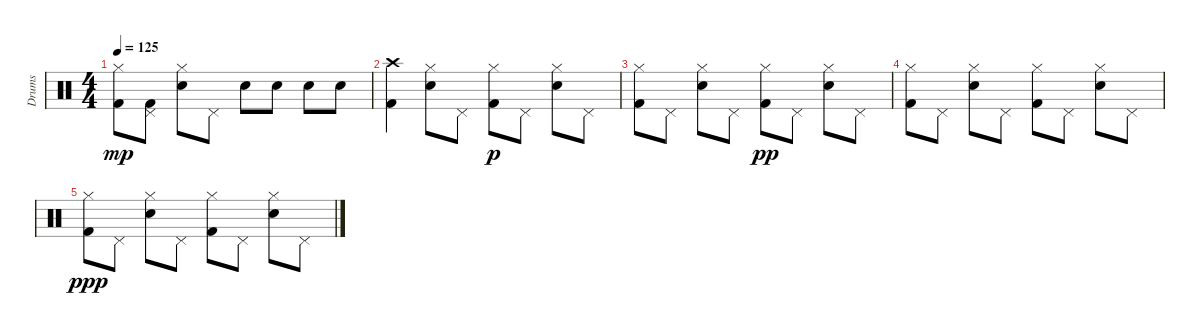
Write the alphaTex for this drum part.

\track ("Drums" "Drums") {instrument percussion}
\staff {score}
\articulation defaults
\ts (4 4)
\tempo 125
\clef neutral
\ks c
("Hi-Hat (closed)" "Kick (hit) 2").8{dy mp} ("Pedal Hi-Hat (hit)" "Kick (hit) 2").8 ("Hi-Hat (closed)" "Electric Snare (hit)").8 "Pedal Hi-Hat (hit)".8 "Electric Snare (hit)".8 "Electric Snare (hit)".8 "Electric Snare (hit)".8 "Electric Snare (hit)".8 |
("Crash high (hit)" "Kick (hit) 2").4 ("Hi-Hat (closed)" "Electric Snare (hit)").8 "Pedal Hi-Hat (hit)".8 ("Hi-Hat (closed)" "Kick (hit) 2").8{dy p} "Pedal Hi-Hat (hit)".8 ("Hi-Hat (closed)" "Electric Snare (hit)").8 "Pedal Hi-Hat (hit)".8 |
("Hi-Hat (closed)" "Kick (hit) 2").8 "Pedal Hi-Hat (hit)".8 ("Hi-Hat (closed)" "Electric Snare (hit)").8 "Pedal Hi-Hat (hit)".8 ("Hi-Hat (closed)" "Kick (hit) 2").8{dy pp} "Pedal Hi-Hat (hit)".8 ("Hi-Hat (closed)" "Electric Snare (hit)").8 "Pedal Hi-Hat (hit)".8 |
("Hi-Hat (closed)" "Kick (hit) 2").8 "Pedal Hi-Hat (hit)".8 ("Hi-Hat (closed)" "Electric Snare (hit)").8 "Pedal Hi-Hat (hit)".8 ("Hi-Hat (closed)" "Kick (hit) 2").8 "Pedal Hi-Hat (hit)".8 ("Hi-Hat (closed)" "Electric Snare (hit)").8 "Pedal Hi-Hat (hit)".8 |
("Hi-Hat (closed)" "Kick (hit) 2").8{dy ppp} "Pedal Hi-Hat (hit)".8 ("Hi-Hat (closed)" "Electric Snare (hit)").8 "Pedal Hi-Hat (hit)".8 ("Hi-Hat (closed)" "Kick (hit) 2").8 "Pedal Hi-Hat (hit)".8 ("Hi-Hat (closed)" "Electric Snare (hit)").8 "Pedal Hi-Hat (hit)".8
